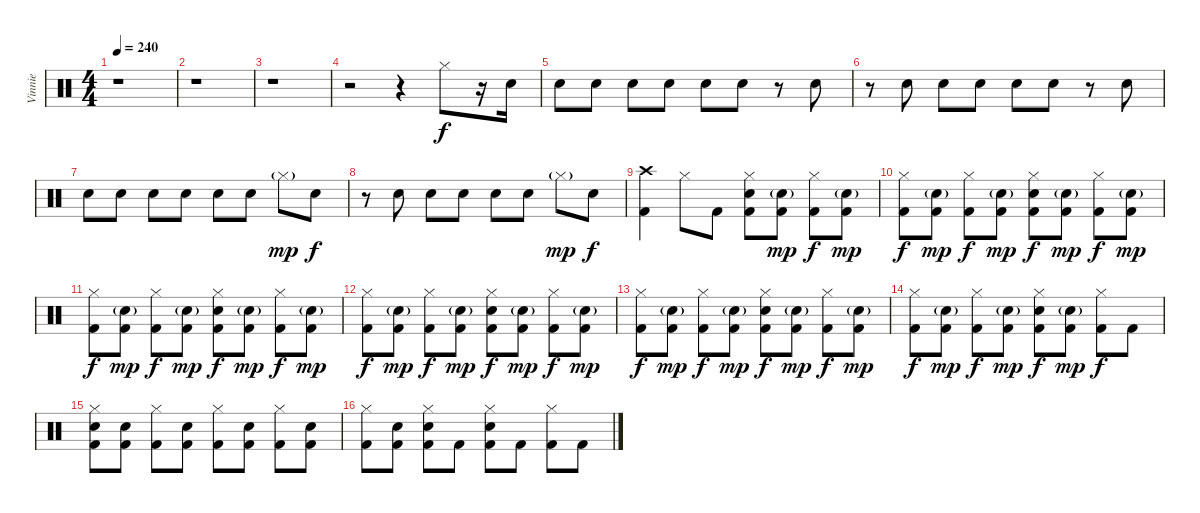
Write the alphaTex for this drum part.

\track ("Vinnie" "Vinnie") {instrument percussion}
\staff {score}
\articulation defaults
\ts (4 4)
\tempo 240
\clef neutral
\ks c
r.1{dy f} |
r.1 |
r.1 |
r.2 r.4 "Hi-Hat (closed)".8 r.16 "Electric Snare (hit)".16 |
"Electric Snare (hit)".8 "Electric Snare (hit)".8 "Electric Snare (hit)".8 "Electric Snare (hit)".8 "Electric Snare (hit)".8 "Electric Snare (hit)".8 r.8 "Electric Snare (hit)".8 |
r.8 "Electric Snare (hit)".8 "Electric Snare (hit)".8 "Electric Snare (hit)".8 "Electric Snare (hit)".8 "Electric Snare (hit)".8 r.8 "Electric Snare (hit)".8 |
"Electric Snare (hit)".8 "Electric Snare (hit)".8 "Electric Snare (hit)".8 "Electric Snare (hit)".8 "Electric Snare (hit)".8 "Electric Snare (hit)".8 "Hi-Hat (closed)"{g}.8{dy mp} "Electric Snare (hit)".8{dy f} |
r.8 "Electric Snare (hit)".8 "Electric Snare (hit)".8 "Electric Snare (hit)".8 "Electric Snare (hit)".8 "Electric Snare (hit)".8 "Hi-Hat (closed)"{g}.8{dy mp} "Electric Snare (hit)".8{dy f} |
("Crash high (hit)" "Kick (hit) 2").4 "Hi-Hat (closed)".8 "Kick (hit) 2".8 ("Hi-Hat (closed)" "Electric Snare (hit)" "Kick (hit) 2").8 ("Electric Snare (hit)"{g} "Kick (hit) 2").8{dy mp} ("Hi-Hat (closed)" "Kick (hit) 2").8{dy f} ("Electric Snare (hit)"{g} "Kick (hit) 2").8{dy mp} |
("Hi-Hat (closed)" "Kick (hit) 2").8{dy f} ("Electric Snare (hit)"{g} "Kick (hit) 2").8{dy mp} ("Hi-Hat (closed)" "Kick (hit) 2").8{dy f} ("Electric Snare (hit)"{g} "Kick (hit) 2").8{dy mp} ("Hi-Hat (closed)" "Electric Snare (hit)" "Kick (hit) 2").8{dy f} ("Electric Snare (hit)"{g} "Kick (hit) 2").8{dy mp} ("Hi-Hat (closed)" "Kick (hit) 2").8{dy f} ("Electric Snare (hit)"{g} "Kick (hit) 2").8{dy mp} |
("Hi-Hat (closed)" "Kick (hit) 2").8{dy f} ("Electric Snare (hit)"{g} "Kick (hit) 2").8{dy mp} ("Hi-Hat (closed)" "Kick (hit) 2").8{dy f} ("Electric Snare (hit)"{g} "Kick (hit) 2").8{dy mp} ("Hi-Hat (closed)" "Electric Snare (hit)" "Kick (hit) 2").8{dy f} ("Electric Snare (hit)"{g} "Kick (hit) 2").8{dy mp} ("Hi-Hat (closed)" "Kick (hit) 2").8{dy f} ("Electric Snare (hit)"{g} "Kick (hit) 2").8{dy mp} |
("Hi-Hat (closed)" "Kick (hit) 2").8{dy f} ("Electric Snare (hit)"{g} "Kick (hit) 2").8{dy mp} ("Hi-Hat (closed)" "Kick (hit) 2").8{dy f} ("Electric Snare (hit)"{g} "Kick (hit) 2").8{dy mp} ("Hi-Hat (closed)" "Electric Snare (hit)" "Kick (hit) 2").8{dy f} ("Electric Snare (hit)"{g} "Kick (hit) 2").8{dy mp} ("Hi-Hat (closed)" "Kick (hit) 2").8{dy f} ("Electric Snare (hit)"{g} "Kick (hit) 2").8{dy mp} |
("Hi-Hat (closed)" "Kick (hit) 2").8{dy f} ("Electric Snare (hit)"{g} "Kick (hit) 2").8{dy mp} ("Hi-Hat (closed)" "Kick (hit) 2").8{dy f} ("Electric Snare (hit)"{g} "Kick (hit) 2").8{dy mp} ("Hi-Hat (closed)" "Electric Snare (hit)" "Kick (hit) 2").8{dy f} ("Electric Snare (hit)"{g} "Kick (hit) 2").8{dy mp} ("Hi-Hat (closed)" "Kick (hit) 2").8{dy f} ("Electric Snare (hit)"{g} "Kick (hit) 2").8{dy mp} |
("Hi-Hat (closed)" "Kick (hit) 2").8{dy f} ("Electric Snare (hit)"{g} "Kick (hit) 2").8{dy mp} ("Hi-Hat (closed)" "Kick (hit) 2").8{dy f} ("Electric Snare (hit)"{g} "Kick (hit) 2").8{dy mp} ("Hi-Hat (closed)" "Electric Snare (hit)" "Kick (hit) 2").8{dy f} ("Electric Snare (hit)"{g} "Kick (hit) 2").8{dy mp} ("Hi-Hat (closed)" "Kick (hit) 2").8{dy f} "Kick (hit) 2".8 |
("Hi-Hat (closed)" "Electric Snare (hit)" "Kick (hit) 2").8 ("Electric Snare (hit)" "Kick (hit) 2").8 ("Hi-Hat (closed)" "Kick (hit) 2").8 ("Electric Snare (hit)" "Kick (hit) 2").8 ("Hi-Hat (closed)" "Kick (hit) 2").8 ("Electric Snare (hit)" "Kick (hit) 2").8 ("Hi-Hat (closed)" "Kick (hit) 2").8 ("Electric Snare (hit)" "Kick (hit) 2").8 |
("Hi-Hat (closed)" "Kick (hit) 2").8 ("Electric Snare (hit)" "Kick (hit) 2").8 ("Hi-Hat (closed)" "Electric Snare (hit)" "Kick (hit) 2").8 "Kick (hit) 2".8 ("Hi-Hat (closed)" "Electric Snare (hit)" "Kick (hit) 2").8 "Kick (hit) 2".8 ("Hi-Hat (closed)" "Kick (hit) 2").8 "Kick (hit) 2".8
